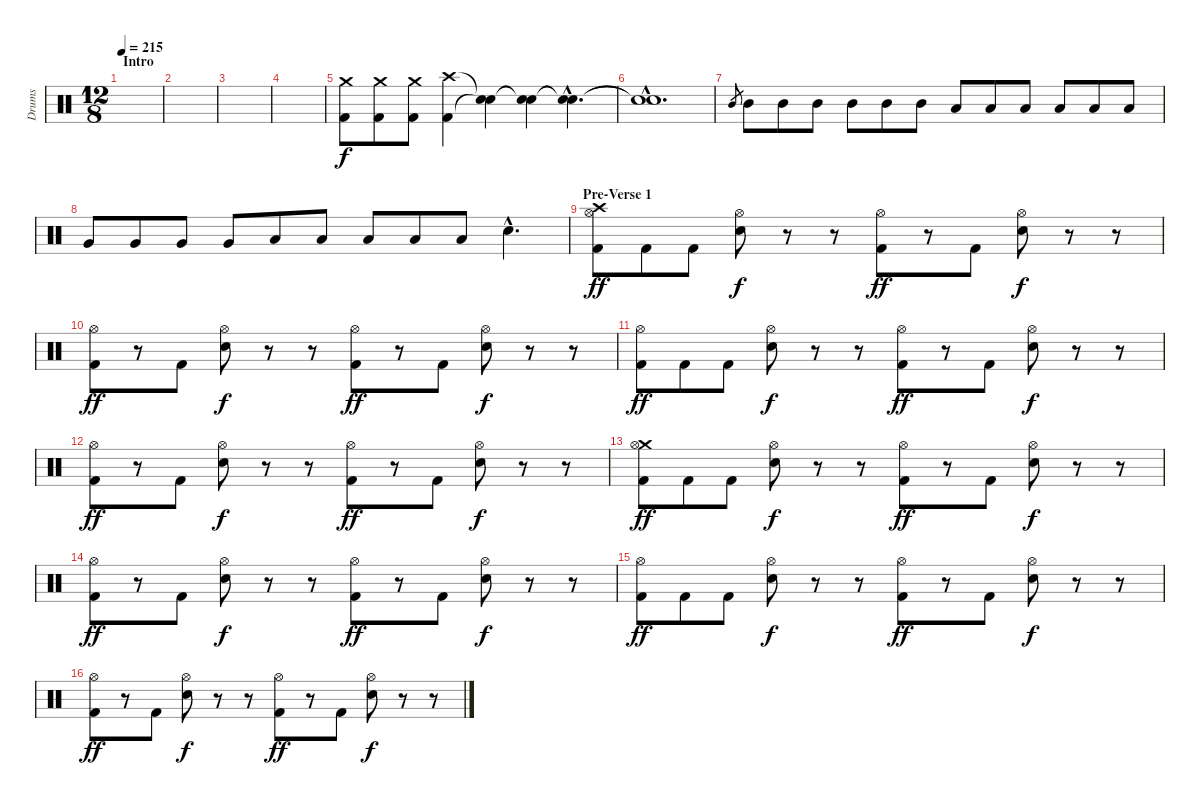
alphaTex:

\track ("Drums" "Drums") {instrument percussion}
\staff {score}
\articulation defaults
\ts (12 8)
\section ("" "Intro")
\tempo 215
\clef neutral
\ks c
|
|
|
|
("Crash medium (hit)" "Kick (hit) 2").8 ("Crash medium (hit)" "Kick (hit) 2").8 ("Crash medium (hit)" "Kick (hit) 2").8 ("Crash high (hit)" "Kick (hit) 2").4 ("Snare (hit)"{t} "Snare (hit)"{t}).4 ("Snare (hit)"{t} "Snare (hit)"{t}).4 ("Snare (hit)"{hac t} "Snare (hit)"{hac t}).4{d} |
("Snare (hit)"{hac t} "Snare (hit)"{hac t}).1{d} |
"Mid Tom (hit)".8{gr} "Mid Tom (hit)".8 "Mid Tom (hit)".8 "Mid Tom (hit)".8 "Mid Tom (hit)".8 "Mid Tom (hit)".8 "Mid Tom (hit)".8 "Low Tom (hit)".8 "Low Tom (hit)".8 "Low Tom (hit)".8 "Low Tom (hit)".8 "Low Tom (hit)".8 "Low Tom (hit)".8 |
"Very Low Tom (hit)".8 "Very Low Tom (hit)".8 "Very Low Tom (hit)".8 "Very Low Tom (hit)".8 "Low Floor Tom (hit)".8 "Low Floor Tom (hit)".8 "Low Floor Tom (hit)".8 "Low Floor Tom (hit)".8 "Low Floor Tom (hit)".8 "Snare (hit) 2"{hac}.4{d} |
\section ("" "Pre-Verse 1")
("Crash high (hit)" "Hi-Hat (open)" "Kick (hit) 2").8{dy ff} "Kick (hit) 2".8 "Kick (hit) 2".8 ("Hi-Hat (open)" "Snare (hit) 2").8{dy f} r.8 r.8 ("Hi-Hat (open)" "Kick (hit) 2").8{dy ff} r.8 "Kick (hit) 2".8 ("Hi-Hat (open)" "Snare (hit) 2").8{dy f} r.8 r.8 |
("Hi-Hat (open)" "Kick (hit) 2").8{dy ff} r.8 "Kick (hit) 2".8 ("Hi-Hat (open)" "Snare (hit) 2").8{dy f} r.8 r.8 ("Hi-Hat (open)" "Kick (hit) 2").8{dy ff} r.8 "Kick (hit) 2".8 ("Hi-Hat (open)" "Snare (hit) 2").8{dy f} r.8 r.8 |
("Hi-Hat (open)" "Kick (hit) 2").8{dy ff} "Kick (hit) 2".8 "Kick (hit) 2".8 ("Hi-Hat (open)" "Snare (hit) 2").8{dy f} r.8 r.8 ("Hi-Hat (open)" "Kick (hit) 2").8{dy ff} r.8 "Kick (hit) 2".8 ("Hi-Hat (open)" "Snare (hit) 2").8{dy f} r.8 r.8 |
("Hi-Hat (open)" "Kick (hit) 2").8{dy ff} r.8 "Kick (hit) 2".8 ("Hi-Hat (open)" "Snare (hit) 2").8{dy f} r.8 r.8 ("Hi-Hat (open)" "Kick (hit) 2").8{dy ff} r.8 "Kick (hit) 2".8 ("Hi-Hat (open)" "Snare (hit) 2").8{dy f} r.8 r.8 |
("Crash medium (hit)" "Hi-Hat (open)" "Kick (hit) 2").8{dy ff} "Kick (hit) 2".8 "Kick (hit) 2".8 ("Hi-Hat (open)" "Snare (hit) 2").8{dy f} r.8 r.8 ("Hi-Hat (open)" "Kick (hit) 2").8{dy ff} r.8 "Kick (hit) 2".8 ("Hi-Hat (open)" "Snare (hit) 2").8{dy f} r.8 r.8 |
("Hi-Hat (open)" "Kick (hit) 2").8{dy ff} r.8 "Kick (hit) 2".8 ("Hi-Hat (open)" "Snare (hit) 2").8{dy f} r.8 r.8 ("Hi-Hat (open)" "Kick (hit) 2").8{dy ff} r.8 "Kick (hit) 2".8 ("Hi-Hat (open)" "Snare (hit) 2").8{dy f} r.8 r.8 |
("Hi-Hat (open)" "Kick (hit) 2").8{dy ff} "Kick (hit) 2".8 "Kick (hit) 2".8 ("Hi-Hat (open)" "Snare (hit) 2").8{dy f} r.8 r.8 ("Hi-Hat (open)" "Kick (hit) 2").8{dy ff} r.8 "Kick (hit) 2".8 ("Hi-Hat (open)" "Snare (hit) 2").8{dy f} r.8 r.8 |
("Hi-Hat (open)" "Kick (hit) 2").8{dy ff} r.8 "Kick (hit) 2".8 ("Hi-Hat (open)" "Snare (hit) 2").8{dy f} r.8 r.8 ("Hi-Hat (open)" "Kick (hit) 2").8{dy ff} r.8 "Kick (hit) 2".8 ("Hi-Hat (open)" "Snare (hit) 2").8{dy f} r.8 r.8
